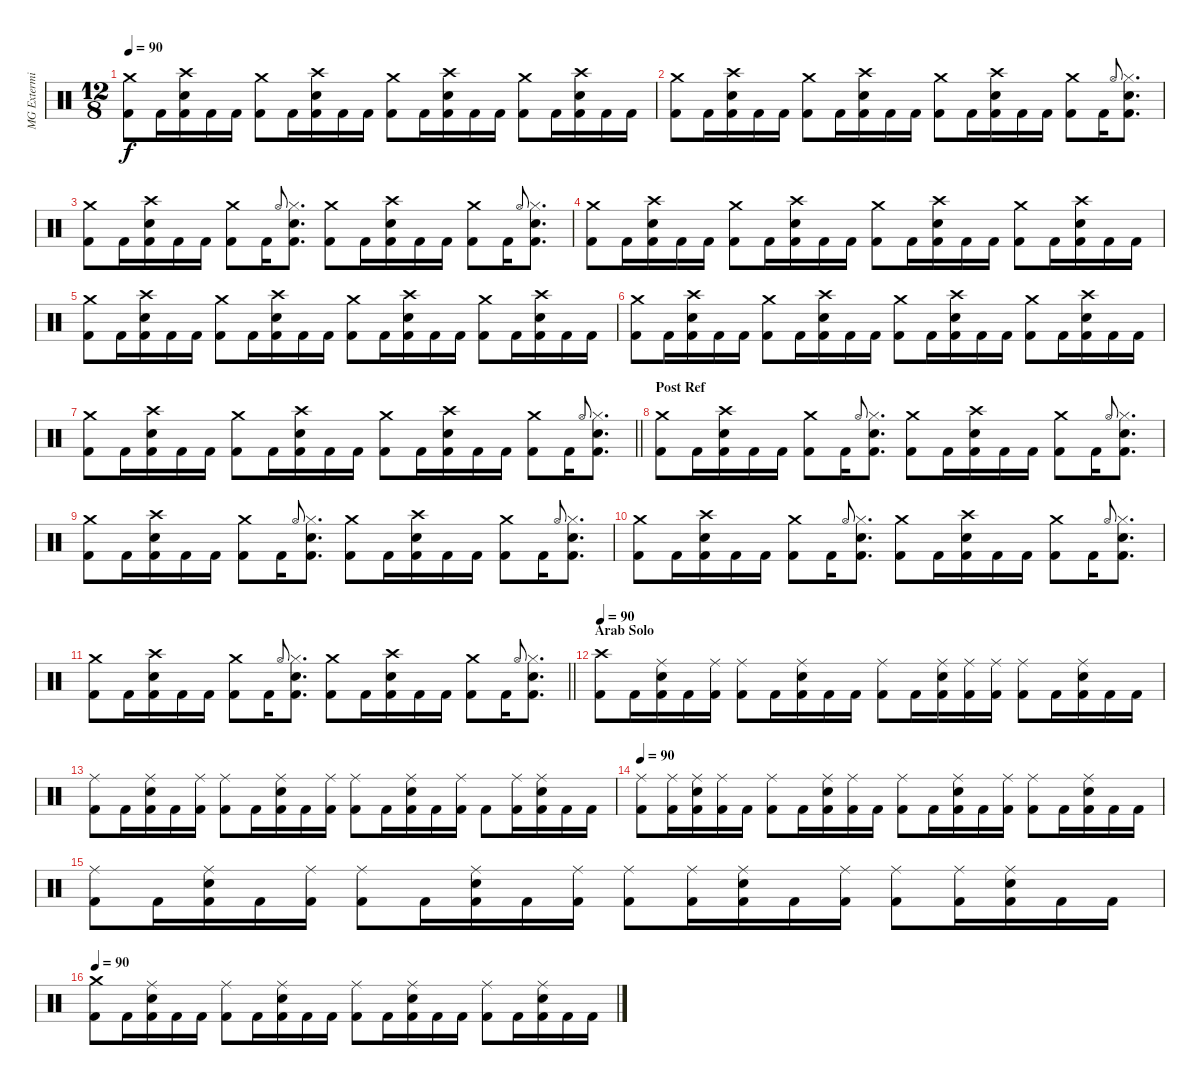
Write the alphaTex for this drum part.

\track ("MG Exterminator" "MG Extermi") {instrument percussion}
\staff {score}
\articulation defaults
\ts (12 8)
\tempo 90
\clef neutral
\ks c
("Crash medium (hit)" "Kick (hit) 2").8{dy f} "Kick (hit) 2".16 ("Crash high (hit)" "Snare (hit) 2" "Kick (hit) 2").16 "Kick (hit) 2".16 "Kick (hit) 2".16 ("Crash medium (hit)" "Kick (hit) 2").8 "Kick (hit) 2".16 ("Crash high (hit)" "Snare (hit) 2" "Kick (hit) 2").16 "Kick (hit) 2".16 "Kick (hit) 2".16 ("Crash medium (hit)" "Kick (hit) 2").8 "Kick (hit) 2".16 ("Crash high (hit)" "Snare (hit) 2" "Kick (hit) 2").16 "Kick (hit) 2".16 "Kick (hit) 2".16 ("Crash medium (hit)" "Kick (hit) 2").8 "Kick (hit) 2".16 ("Crash high (hit)" "Snare (hit) 2" "Kick (hit) 2").16 "Kick (hit) 2".16 "Kick (hit) 2".16 |
("Crash medium (hit)" "Kick (hit) 2").8 "Kick (hit) 2".16 ("Crash high (hit)" "Snare (hit) 2" "Kick (hit) 2").16 "Kick (hit) 2".16 "Kick (hit) 2".16 ("Crash medium (hit)" "Kick (hit) 2").8 "Kick (hit) 2".16 ("Crash high (hit)" "Snare (hit) 2" "Kick (hit) 2").16 "Kick (hit) 2".16 "Kick (hit) 2".16 ("Crash medium (hit)" "Kick (hit) 2").8 "Kick (hit) 2".16 ("Crash high (hit)" "Snare (hit) 2" "Kick (hit) 2").16 "Kick (hit) 2".16 "Kick (hit) 2".16 ("Crash medium (hit)" "Kick (hit) 2").8 "Kick (hit) 2".16 "Hi-Hat (open)".8{gr onbeat} ("Hi-Hat (closed)" "Snare (hit) 2" "Kick (hit) 2").8{d} |
("Crash medium (hit)" "Kick (hit) 2").8 "Kick (hit) 2".16 ("Crash high (hit)" "Snare (hit) 2" "Kick (hit) 2").16 "Kick (hit) 2".16 "Kick (hit) 2".16 ("Crash medium (hit)" "Kick (hit) 2").8 "Kick (hit) 2".16 "Hi-Hat (open)".8{gr onbeat} ("Hi-Hat (closed)" "Snare (hit) 2" "Kick (hit) 2").8{d} ("Crash medium (hit)" "Kick (hit) 2").8 "Kick (hit) 2".16 ("Crash high (hit)" "Snare (hit) 2" "Kick (hit) 2").16 "Kick (hit) 2".16 "Kick (hit) 2".16 ("Crash medium (hit)" "Kick (hit) 2").8 "Kick (hit) 2".16 "Hi-Hat (open)".8{gr onbeat} ("Hi-Hat (closed)" "Snare (hit) 2" "Kick (hit) 2").8{d} |
("Crash medium (hit)" "Kick (hit) 2").8 "Kick (hit) 2".16 ("Crash high (hit)" "Snare (hit) 2" "Kick (hit) 2").16 "Kick (hit) 2".16 "Kick (hit) 2".16 ("Crash medium (hit)" "Kick (hit) 2").8 "Kick (hit) 2".16 ("Crash high (hit)" "Snare (hit) 2" "Kick (hit) 2").16 "Kick (hit) 2".16 "Kick (hit) 2".16 ("Crash medium (hit)" "Kick (hit) 2").8 "Kick (hit) 2".16 ("Crash high (hit)" "Snare (hit) 2" "Kick (hit) 2").16 "Kick (hit) 2".16 "Kick (hit) 2".16 ("Crash medium (hit)" "Kick (hit) 2").8 "Kick (hit) 2".16 ("Crash high (hit)" "Snare (hit) 2" "Kick (hit) 2").16 "Kick (hit) 2".16 "Kick (hit) 2".16 |
("Crash medium (hit)" "Kick (hit) 2").8 "Kick (hit) 2".16 ("Crash high (hit)" "Snare (hit) 2" "Kick (hit) 2").16 "Kick (hit) 2".16 "Kick (hit) 2".16 ("Crash medium (hit)" "Kick (hit) 2").8 "Kick (hit) 2".16 ("Crash high (hit)" "Snare (hit) 2" "Kick (hit) 2").16 "Kick (hit) 2".16 "Kick (hit) 2".16 ("Crash medium (hit)" "Kick (hit) 2").8 "Kick (hit) 2".16 ("Crash high (hit)" "Snare (hit) 2" "Kick (hit) 2").16 "Kick (hit) 2".16 "Kick (hit) 2".16 ("Crash medium (hit)" "Kick (hit) 2").8 "Kick (hit) 2".16 ("Crash high (hit)" "Snare (hit) 2" "Kick (hit) 2").16 "Kick (hit) 2".16 "Kick (hit) 2".16 |
("Crash medium (hit)" "Kick (hit) 2").8 "Kick (hit) 2".16 ("Crash high (hit)" "Snare (hit) 2" "Kick (hit) 2").16 "Kick (hit) 2".16 "Kick (hit) 2".16 ("Crash medium (hit)" "Kick (hit) 2").8 "Kick (hit) 2".16 ("Crash high (hit)" "Snare (hit) 2" "Kick (hit) 2").16 "Kick (hit) 2".16 "Kick (hit) 2".16 ("Crash medium (hit)" "Kick (hit) 2").8 "Kick (hit) 2".16 ("Crash high (hit)" "Snare (hit) 2" "Kick (hit) 2").16 "Kick (hit) 2".16 "Kick (hit) 2".16 ("Crash medium (hit)" "Kick (hit) 2").8 "Kick (hit) 2".16 ("Crash high (hit)" "Snare (hit) 2" "Kick (hit) 2").16 "Kick (hit) 2".16 "Kick (hit) 2".16 |
\barLineRight lightlight
("Crash medium (hit)" "Kick (hit) 2").8 "Kick (hit) 2".16 ("Crash high (hit)" "Snare (hit) 2" "Kick (hit) 2").16 "Kick (hit) 2".16 "Kick (hit) 2".16 ("Crash medium (hit)" "Kick (hit) 2").8 "Kick (hit) 2".16 ("Crash high (hit)" "Snare (hit) 2" "Kick (hit) 2").16 "Kick (hit) 2".16 "Kick (hit) 2".16 ("Crash medium (hit)" "Kick (hit) 2").8 "Kick (hit) 2".16 ("Crash high (hit)" "Snare (hit) 2" "Kick (hit) 2").16 "Kick (hit) 2".16 "Kick (hit) 2".16 ("Crash medium (hit)" "Kick (hit) 2").8 "Kick (hit) 2".16 "Hi-Hat (open)".8{gr onbeat} ("Hi-Hat (closed)" "Snare (hit) 2" "Kick (hit) 2").8{d} |
\section ("" "Post Ref")
("Crash medium (hit)" "Kick (hit) 2").8 "Kick (hit) 2".16 ("Crash high (hit)" "Snare (hit) 2" "Kick (hit) 2").16 "Kick (hit) 2".16 "Kick (hit) 2".16 ("Crash medium (hit)" "Kick (hit) 2").8 "Kick (hit) 2".16 "Hi-Hat (open)".8{gr onbeat} ("Hi-Hat (closed)" "Snare (hit) 2" "Kick (hit) 2").8{d} ("Crash medium (hit)" "Kick (hit) 2").8 "Kick (hit) 2".16 ("Crash high (hit)" "Snare (hit) 2" "Kick (hit) 2").16 "Kick (hit) 2".16 "Kick (hit) 2".16 ("Crash medium (hit)" "Kick (hit) 2").8 "Kick (hit) 2".16 "Hi-Hat (open)".8{gr onbeat} ("Hi-Hat (closed)" "Snare (hit) 2" "Kick (hit) 2").8{d} |
("Crash medium (hit)" "Kick (hit) 2").8 "Kick (hit) 2".16 ("Crash high (hit)" "Snare (hit) 2" "Kick (hit) 2").16 "Kick (hit) 2".16 "Kick (hit) 2".16 ("Crash medium (hit)" "Kick (hit) 2").8 "Kick (hit) 2".16 "Hi-Hat (open)".8{gr onbeat} ("Hi-Hat (closed)" "Snare (hit) 2" "Kick (hit) 2").8{d} ("Crash medium (hit)" "Kick (hit) 2").8 "Kick (hit) 2".16 ("Crash high (hit)" "Snare (hit) 2" "Kick (hit) 2").16 "Kick (hit) 2".16 "Kick (hit) 2".16 ("Crash medium (hit)" "Kick (hit) 2").8 "Kick (hit) 2".16 "Hi-Hat (open)".8{gr onbeat} ("Hi-Hat (closed)" "Snare (hit) 2" "Kick (hit) 2").8{d} |
("Crash medium (hit)" "Kick (hit) 2").8 "Kick (hit) 2".16 ("Crash high (hit)" "Snare (hit) 2" "Kick (hit) 2").16 "Kick (hit) 2".16 "Kick (hit) 2".16 ("Crash medium (hit)" "Kick (hit) 2").8 "Kick (hit) 2".16 "Hi-Hat (open)".8{gr onbeat} ("Hi-Hat (closed)" "Snare (hit) 2" "Kick (hit) 2").8{d} ("Crash medium (hit)" "Kick (hit) 2").8 "Kick (hit) 2".16 ("Crash high (hit)" "Snare (hit) 2" "Kick (hit) 2").16 "Kick (hit) 2".16 "Kick (hit) 2".16 ("Crash medium (hit)" "Kick (hit) 2").8 "Kick (hit) 2".16 "Hi-Hat (open)".8{gr onbeat} ("Hi-Hat (closed)" "Snare (hit) 2" "Kick (hit) 2").8{d} |
\barLineRight lightlight
("Crash medium (hit)" "Kick (hit) 2").8 "Kick (hit) 2".16 ("Crash high (hit)" "Snare (hit) 2" "Kick (hit) 2").16 "Kick (hit) 2".16 "Kick (hit) 2".16 ("Crash medium (hit)" "Kick (hit) 2").8 "Kick (hit) 2".16 "Hi-Hat (open)".8{gr onbeat} ("Hi-Hat (closed)" "Snare (hit) 2" "Kick (hit) 2").8{d} ("Crash medium (hit)" "Kick (hit) 2").8 "Kick (hit) 2".16 ("Crash high (hit)" "Snare (hit) 2" "Kick (hit) 2").16 "Kick (hit) 2".16 "Kick (hit) 2".16 ("Crash medium (hit)" "Kick (hit) 2").8 "Kick (hit) 2".16 "Hi-Hat (open)".8{gr onbeat} ("Hi-Hat (closed)" "Snare (hit) 2" "Kick (hit) 2").8{d} |
\section ("" "Arab Solo")
\tempo 90
("Crash high (hit)" "Kick (hit) 2").8 "Kick (hit) 2".16 ("Ride (middle)" "Snare (hit) 2" "Kick (hit) 2").16 "Kick (hit) 2".16 ("Ride (middle)" "Kick (hit) 2").16 ("Ride (middle)" "Kick (hit) 2").8 "Kick (hit) 2".16 ("Ride (middle)" "Snare (hit) 2" "Kick (hit) 2").16 "Kick (hit) 2".16 "Kick (hit) 2".16 ("Ride (middle)" "Kick (hit) 2").8 "Kick (hit) 2".16 ("Ride (middle)" "Snare (hit) 2" "Kick (hit) 2").16 ("Ride (middle)" "Kick (hit) 2").16 ("Ride (middle)" "Kick (hit) 2").16 ("Ride (middle)" "Kick (hit) 2").8 "Kick (hit) 2".16 ("Ride (middle)" "Snare (hit) 2" "Kick (hit) 2").16 "Kick (hit) 2".16 "Kick (hit) 2".16 |
("Ride (middle)" "Kick (hit) 2").8 "Kick (hit) 2".16 ("Ride (middle)" "Snare (hit) 2" "Kick (hit) 2").16 "Kick (hit) 2".16 ("Ride (middle)" "Kick (hit) 2").16 ("Ride (middle)" "Kick (hit) 2").8 "Kick (hit) 2".16 ("Ride (middle)" "Snare (hit) 2" "Kick (hit) 2").16 "Kick (hit) 2".16 ("Ride (middle)" "Kick (hit) 2").16 ("Ride (middle)" "Kick (hit) 2").8 "Kick (hit) 2".16 ("Ride (middle)" "Snare (hit) 2" "Kick (hit) 2").16 "Kick (hit) 2".16 ("Ride (middle)" "Kick (hit) 2").16 "Kick (hit) 2".8 ("Ride (middle)" "Kick (hit) 2").16 ("Ride (middle)" "Snare (hit) 2" "Kick (hit) 2").16 "Kick (hit) 2".16 "Kick (hit) 2".16 |
\tempo 90
("Ride (middle)" "Kick (hit) 2").8 ("Ride (middle)" "Kick (hit) 2").16 ("Ride (middle)" "Snare (hit) 2" "Kick (hit) 2").16 ("Ride (middle)" "Kick (hit) 2").16 "Kick (hit) 2".16 ("Ride (middle)" "Kick (hit) 2").8 "Kick (hit) 2".16 ("Ride (middle)" "Snare (hit) 2" "Kick (hit) 2").16 ("Ride (middle)" "Kick (hit) 2").16 "Kick (hit) 2".16 ("Ride (middle)" "Kick (hit) 2").8 "Kick (hit) 2".16 ("Ride (middle)" "Snare (hit) 2" "Kick (hit) 2").16 "Kick (hit) 2".16 ("Ride (middle)" "Kick (hit) 2").16 ("Ride (middle)" "Kick (hit) 2").8 "Kick (hit) 2".16 ("Ride (middle)" "Snare (hit) 2" "Kick (hit) 2").16 "Kick (hit) 2".16 "Kick (hit) 2".16 |
("Ride (middle)" "Kick (hit) 2").8 "Kick (hit) 2".16 ("Ride (middle)" "Snare (hit) 2" "Kick (hit) 2").16 "Kick (hit) 2".16 ("Ride (middle)" "Kick (hit) 2").16 ("Ride (middle)" "Kick (hit) 2").8 "Kick (hit) 2".16 ("Ride (middle)" "Snare (hit) 2" "Kick (hit) 2").16 "Kick (hit) 2".16 ("Ride (middle)" "Kick (hit) 2").16 ("Ride (middle)" "Kick (hit) 2").8 ("Ride (middle)" "Kick (hit) 2").16 ("Ride (middle)" "Snare (hit) 2" "Kick (hit) 2").16 "Kick (hit) 2".16 ("Ride (middle)" "Kick (hit) 2").16 ("Ride (middle)" "Kick (hit) 2").8 ("Ride (middle)" "Kick (hit) 2").16 ("Ride (middle)" "Snare (hit) 2" "Kick (hit) 2").16 "Kick (hit) 2".16 "Kick (hit) 2".16 |
\tempo 90
("Crash medium (hit)" "Kick (hit) 2").8 "Kick (hit) 2".16 ("Ride (middle)" "Snare (hit) 2" "Kick (hit) 2").16 "Kick (hit) 2".16 "Kick (hit) 2".16 ("Ride (middle)" "Kick (hit) 2").8 "Kick (hit) 2".16 ("Ride (middle)" "Snare (hit) 2" "Kick (hit) 2").16 "Kick (hit) 2".16 "Kick (hit) 2".16 ("Ride (middle)" "Kick (hit) 2").8 "Kick (hit) 2".16 ("Ride (middle)" "Snare (hit) 2" "Kick (hit) 2").16 "Kick (hit) 2".16 "Kick (hit) 2".16 ("Ride (middle)" "Kick (hit) 2").8 "Kick (hit) 2".16 ("Ride (middle)" "Snare (hit) 2" "Kick (hit) 2").16 "Kick (hit) 2".16 "Kick (hit) 2".16
